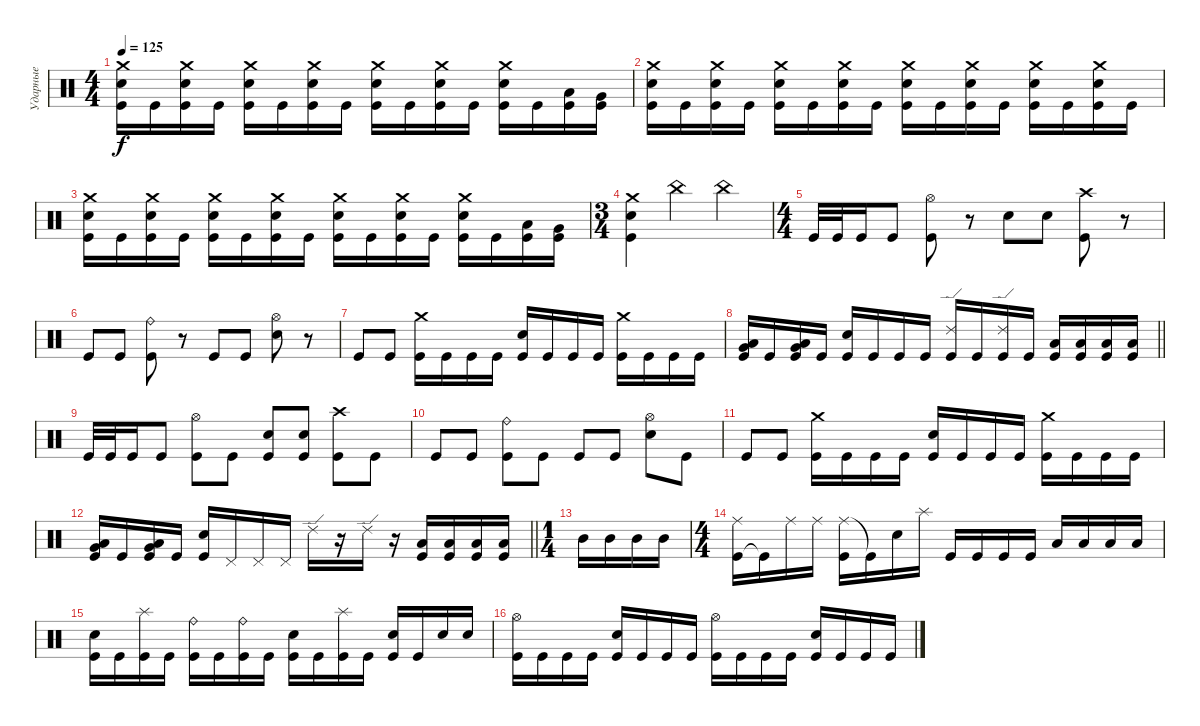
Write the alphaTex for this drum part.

\track ("Ударные" "Ударные") {instrument percussion}
\staff {score}
\articulation defaults
\ts (4 4)
\tempo 125
\clef neutral
\ks c
("Crash medium (hit)" "Kick (hit)" "Electric Snare (hit)").16{dy f} "Kick (hit)".16 ("Crash medium (hit)" "Kick (hit)" "Electric Snare (hit)").16 "Kick (hit)".16 ("Crash medium (hit)" "Kick (hit)" "Electric Snare (hit)").16 "Kick (hit)".16 ("Crash medium (hit)" "Kick (hit)" "Electric Snare (hit)").16 "Kick (hit)".16 ("Crash medium (hit)" "Kick (hit)" "Electric Snare (hit)").16 "Kick (hit)".16 ("Crash medium (hit)" "Kick (hit)" "Electric Snare (hit)").16 "Kick (hit)".16 ("Crash medium (hit)" "Kick (hit)" "Electric Snare (hit)").16 "Kick (hit)".16 ("Low Tom (hit)" "Kick (hit)").16 ("Very Low Tom (hit)" "Kick (hit)").16 |
("Crash medium (hit)" "Kick (hit)" "Electric Snare (hit)").16 "Kick (hit)".16 ("Crash medium (hit)" "Kick (hit)" "Electric Snare (hit)").16 "Kick (hit)".16 ("Crash medium (hit)" "Kick (hit)" "Electric Snare (hit)").16 "Kick (hit)".16 ("Crash medium (hit)" "Kick (hit)" "Electric Snare (hit)").16 "Kick (hit)".16 ("Crash medium (hit)" "Kick (hit)" "Electric Snare (hit)").16 "Kick (hit)".16 ("Crash medium (hit)" "Kick (hit)" "Electric Snare (hit)").16 "Kick (hit)".16 ("Crash medium (hit)" "Kick (hit)" "Electric Snare (hit)").16 "Kick (hit)".16 ("Crash medium (hit)" "Kick (hit)" "Electric Snare (hit)").16 "Kick (hit)".16 |
("Crash medium (hit)" "Kick (hit)" "Electric Snare (hit)").16 "Kick (hit)".16 ("Crash medium (hit)" "Kick (hit)" "Electric Snare (hit)").16 "Kick (hit)".16 ("Crash medium (hit)" "Kick (hit)" "Electric Snare (hit)").16 "Kick (hit)".16 ("Crash medium (hit)" "Kick (hit)" "Electric Snare (hit)").16 "Kick (hit)".16 ("Crash medium (hit)" "Kick (hit)" "Electric Snare (hit)").16 "Kick (hit)".16 ("Crash medium (hit)" "Kick (hit)" "Electric Snare (hit)").16 "Kick (hit)".16 ("Crash medium (hit)" "Kick (hit)" "Electric Snare (hit)").16 "Kick (hit)".16 ("Low Tom (hit)" "Kick (hit)").16 ("Very Low Tom (hit)" "Kick (hit)").16 |
\ts (3 4)
("Crash medium (hit)" "Kick (hit)" "Electric Snare (hit)").4 "China (hit)".4 "China (hit)".4 |
\ts (4 4)
"Kick (hit)".32 "Kick (hit)".32 "Kick (hit)".16 "Kick (hit)".8 ("Hi-Hat (open)" "Kick (hit)").8 r.8 "Electric Snare (hit)".8 "Electric Snare (hit)".8 ("Crash high (hit)" "Kick (hit)").8 r.8 |
"Kick (hit)".8 "Kick (hit)".8 ("Ride (bell)" "Kick (hit)").8 r.8 "Kick (hit)".8 "Kick (hit)".8 ("Electric Snare (hit)" "Hi-Hat (open)").8 r.8 |
"Kick (hit)".8 "Kick (hit)".8 ("Crash medium (hit)" "Kick (hit)").16 "Kick (hit)".16 "Kick (hit)".16 "Kick (hit)".16 ("Electric Snare (hit)" "Kick (hit)").16 "Kick (hit)".16 "Kick (hit)".16 "Kick (hit)".16 ("Crash medium (hit)" "Kick (hit)").16 "Kick (hit)".16 "Kick (hit)".16 "Kick (hit)".16 |
\barLineRight lightlight
("Low Floor Tom (hit)" "Very Low Tom (hit)" "Kick (hit)").16 "Kick (hit)".16 ("Low Floor Tom (hit)" "Very Low Tom (hit)" "Kick (hit)").16 "Kick (hit)".16 ("Electric Snare (hit)" "Kick (hit)").16 "Kick (hit)".16 "Kick (hit)".16 "Kick (hit)".16 ("Ride (edge) 2" "Kick (hit)").16 "Kick (hit)".16 ("Ride (edge) 2" "Kick (hit)").16 "Kick (hit)".16 ("Low Floor Tom (hit)" "Kick (hit)").16 ("Low Floor Tom (hit)" "Kick (hit)").16 ("Low Tom (hit)" "Kick (hit)").16 ("Low Tom (hit)" "Kick (hit)").16 |
"Kick (hit)".32 "Kick (hit)".32 "Kick (hit)".16 "Kick (hit)".8 ("Hi-Hat (open)" "Kick (hit)").8 "Kick (hit)".8 ("Electric Snare (hit)" "Kick (hit)").8 ("Electric Snare (hit)" "Kick (hit)").8 ("Crash high (hit)" "Kick (hit)").8 "Kick (hit)".8 |
"Kick (hit)".8 "Kick (hit)".8 ("Ride (bell)" "Kick (hit)").8 "Kick (hit)".8 "Kick (hit)".8 "Kick (hit)".8 ("Electric Snare (hit)" "Hi-Hat (open)").8 "Kick (hit)".8 |
"Kick (hit)".8 "Kick (hit)".8 ("Crash medium (hit)" "Kick (hit)").16 "Kick (hit)".16 "Kick (hit)".16 "Kick (hit)".16 ("Electric Snare (hit)" "Kick (hit)").16 "Kick (hit)".16 "Kick (hit)".16 "Kick (hit)".16 ("Crash medium (hit)" "Kick (hit)").16 "Kick (hit)".16 "Kick (hit)".16 "Kick (hit)".16 |
\barLineRight lightlight
("Low Floor Tom (hit)" "Very Low Tom (hit)" "Kick (hit)").16 "Kick (hit)".16 ("Low Floor Tom (hit)" "Very Low Tom (hit)" "Kick (hit)").16 "Kick (hit)".16 ("Electric Snare (hit)" "Kick (hit)").16 "Pedal Hi-Hat (hit)".16 "Pedal Hi-Hat (hit)".16 "Pedal Hi-Hat (hit)".16 "Ride (edge) 2".16 r.16 "Ride (edge) 2".16 r.16 ("Low Floor Tom (hit)" "Kick (hit)").16 ("Low Floor Tom (hit)" "Kick (hit)").16 ("Low Tom (hit)" "Kick (hit)").16 ("Low Tom (hit)" "Kick (hit)").16 |
\ts (1 4)
"Mid Tom (hit)".16 "Mid Tom (hit)".16 "Mid Tom (hit)".16 "Mid Tom (hit)".16 |
\ts (4 4)
("Kick (hit)" "Ride (middle)").16 "Kick (hit)"{t}.16 "Ride (middle)".16 "Ride (middle)".16 ("Ride (middle)" "Kick (hit)").16 "Kick (hit)"{t}.16 "Electric Snare (hit)".16 "Splash (hit)".16 "Kick (hit)".16 "Kick (hit)".16 "Kick (hit)".16 "Kick (hit)".16 "Low Tom (hit)".16 "Low Tom (hit)".16 "Low Tom (hit)".16 "Low Tom (hit)".16 |
("Electric Snare (hit)" "Kick (hit)").16 "Kick (hit)".16 ("Splash (hit)" "Kick (hit)").16 "Kick (hit)".16 ("Ride (bell)" "Kick (hit)").16 "Kick (hit)".16 ("Ride (bell)" "Kick (hit)").16 "Kick (hit)".16 ("Electric Snare (hit)" "Kick (hit)").16 "Kick (hit)".16 ("Splash (hit)" "Kick (hit)").16 "Kick (hit)".16 ("Electric Snare (hit)" "Kick (hit)").16 "Kick (hit)".16 "Electric Snare (hit)".16 "Electric Snare (hit)".16 |
("Hi-Hat (open)" "Kick (hit)").16 "Kick (hit)".16 "Kick (hit)".16 "Kick (hit)".16 ("Electric Snare (hit)" "Kick (hit)").16 "Kick (hit)".16 "Kick (hit)".16 "Kick (hit)".16 ("Hi-Hat (open)" "Kick (hit)").16 "Kick (hit)".16 "Kick (hit)".16 "Kick (hit)".16 ("Electric Snare (hit)" "Kick (hit)").16 "Kick (hit)".16 "Kick (hit)".16 "Kick (hit)".16
